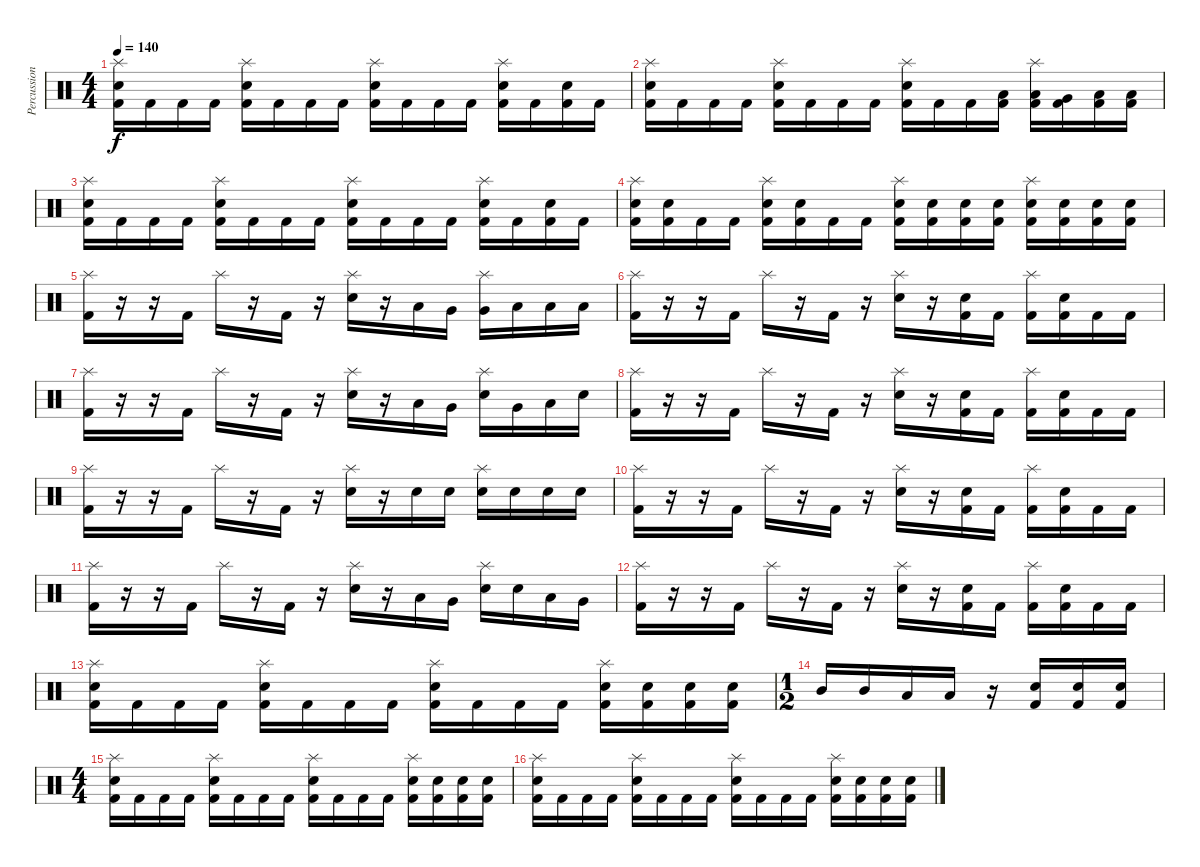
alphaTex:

\track ("Percussion" "Percussion") {instrument percussion}
\staff {score}
\articulation defaults
\ts (4 4)
\tempo 140
\clef neutral
\ks c
("Splash (hit)" "Electric Snare (hit)" "Kick (hit) 2").16{dy f} "Kick (hit) 2".16 "Kick (hit) 2".16 "Kick (hit) 2".16 ("Splash (hit)" "Electric Snare (hit)" "Kick (hit) 2").16 "Kick (hit) 2".16 "Kick (hit) 2".16 "Kick (hit) 2".16 ("Splash (hit)" "Electric Snare (hit)" "Kick (hit) 2").16 "Kick (hit) 2".16 "Kick (hit) 2".16 "Kick (hit) 2".16 ("Splash (hit)" "Electric Snare (hit)" "Kick (hit) 2").16 "Kick (hit) 2".16 ("Electric Snare (hit)" "Kick (hit) 2").16 "Kick (hit) 2".16 |
("Splash (hit)" "Electric Snare (hit)" "Kick (hit) 2").16 "Kick (hit) 2".16 "Kick (hit) 2".16 "Kick (hit) 2".16 ("Splash (hit)" "Electric Snare (hit)" "Kick (hit) 2").16 "Kick (hit) 2".16 "Kick (hit) 2".16 "Kick (hit) 2".16 ("Splash (hit)" "Electric Snare (hit)" "Kick (hit) 2").16 "Kick (hit) 2".16 "Kick (hit) 2".16 ("Low Tom (hit)" "Kick (hit) 2").16 ("Splash (hit)" "Low Tom (hit)" "Kick (hit) 2").16 ("Very Low Tom (hit)" "Kick (hit) 2").16 ("Low Floor Tom (hit)" "Kick (hit) 2").16 ("Low Floor Tom (hit)" "Kick (hit) 2").16 |
("Splash (hit)" "Electric Snare (hit)" "Kick (hit) 2").16 "Kick (hit) 2".16 "Kick (hit) 2".16 "Kick (hit) 2".16 ("Splash (hit)" "Electric Snare (hit)" "Kick (hit) 2").16 "Kick (hit) 2".16 "Kick (hit) 2".16 "Kick (hit) 2".16 ("Splash (hit)" "Electric Snare (hit)" "Kick (hit) 2").16 "Kick (hit) 2".16 "Kick (hit) 2".16 "Kick (hit) 2".16 ("Splash (hit)" "Electric Snare (hit)" "Kick (hit) 2").16 "Kick (hit) 2".16 ("Electric Snare (hit)" "Kick (hit) 2").16 "Kick (hit) 2".16 |
("Splash (hit)" "Electric Snare (hit)" "Kick (hit) 2").16 ("Electric Snare (hit)" "Kick (hit) 2").16 "Kick (hit) 2".16 "Kick (hit) 2".16 ("Splash (hit)" "Electric Snare (hit)" "Kick (hit) 2").16 ("Electric Snare (hit)" "Kick (hit) 2").16 "Kick (hit) 2".16 "Kick (hit) 2".16 ("Splash (hit)" "Electric Snare (hit)" "Kick (hit) 2").16 ("Electric Snare (hit)" "Kick (hit) 2").16 ("Electric Snare (hit)" "Kick (hit) 2").16 ("Electric Snare (hit)" "Kick (hit) 2").16 ("Splash (hit)" "Electric Snare (hit)" "Kick (hit) 2").16 ("Electric Snare (hit)" "Kick (hit) 2").16 ("Electric Snare (hit)" "Kick (hit) 2").16 ("Electric Snare (hit)" "Kick (hit) 2").16 |
("Splash (hit)" "Kick (hit) 2").16 r.16 r.16 "Kick (hit) 2".16 "Splash (hit)".16 r.16 "Kick (hit) 2".16 r.16 ("Splash (hit)" "Electric Snare (hit)").16 r.16 "Low Tom (hit)".16 "Very Low Tom (hit)".16 ("Splash (hit)" "Very Low Tom (hit)").16 "Low Tom (hit)".16 "Low Floor Tom (hit)".16 "Low Floor Tom (hit)".16 |
("Splash (hit)" "Kick (hit) 2").16 r.16 r.16 "Kick (hit) 2".16 "Splash (hit)".16 r.16 "Kick (hit) 2".16 r.16 ("Splash (hit)" "Electric Snare (hit)").16 r.16 ("Electric Snare (hit)" "Kick (hit) 2").16 "Kick (hit) 2".16 ("Splash (hit)" "Kick (hit) 2").16 ("Electric Snare (hit)" "Kick (hit) 2").16 "Kick (hit) 2".16 "Kick (hit) 2".16 |
("Splash (hit)" "Kick (hit) 2").16 r.16 r.16 "Kick (hit) 2".16 "Splash (hit)".16 r.16 "Kick (hit) 2".16 r.16 ("Splash (hit)" "Electric Snare (hit)").16 r.16 "Low Tom (hit)".16 "Very Low Tom (hit)".16 ("Splash (hit)" "Electric Snare (hit)").16 "Very Low Tom (hit)".16 "Low Floor Tom (hit)".16 "Electric Snare (hit)".16 |
("Splash (hit)" "Kick (hit) 2").16 r.16 r.16 "Kick (hit) 2".16 "Splash (hit)".16 r.16 "Kick (hit) 2".16 r.16 ("Splash (hit)" "Electric Snare (hit)").16 r.16 ("Electric Snare (hit)" "Kick (hit) 2").16 "Kick (hit) 2".16 ("Splash (hit)" "Kick (hit) 2").16 ("Electric Snare (hit)" "Kick (hit) 2").16 "Kick (hit) 2".16 "Kick (hit) 2".16 |
("Splash (hit)" "Kick (hit) 2").16 r.16 r.16 "Kick (hit) 2".16 "Splash (hit)".16 r.16 "Kick (hit) 2".16 r.16 ("Splash (hit)" "Electric Snare (hit)").16 r.16 "Electric Snare (hit)".16 "Electric Snare (hit)".16 ("Splash (hit)" "Electric Snare (hit)").16 "Electric Snare (hit)".16 "Electric Snare (hit)".16 "Electric Snare (hit)".16 |
("Splash (hit)" "Kick (hit) 2").16 r.16 r.16 "Kick (hit) 2".16 "Splash (hit)".16 r.16 "Kick (hit) 2".16 r.16 ("Splash (hit)" "Electric Snare (hit)").16 r.16 ("Electric Snare (hit)" "Kick (hit) 2").16 "Kick (hit) 2".16 ("Splash (hit)" "Kick (hit) 2").16 ("Electric Snare (hit)" "Kick (hit) 2").16 "Kick (hit) 2".16 "Kick (hit) 2".16 |
("Splash (hit)" "Kick (hit) 2").16 r.16 r.16 "Kick (hit) 2".16 "Splash (hit)".16 r.16 "Kick (hit) 2".16 r.16 ("Splash (hit)" "Electric Snare (hit)").16 r.16 "Low Tom (hit)".16 "Very Low Tom (hit)".16 ("Splash (hit)" "Electric Snare (hit)").16 "Electric Snare (hit)".16 "Low Floor Tom (hit)".16 "Very Low Tom (hit)".16 |
("Splash (hit)" "Kick (hit) 2").16 r.16 r.16 "Kick (hit) 2".16 "Splash (hit)".16 r.16 "Kick (hit) 2".16 r.16 ("Splash (hit)" "Electric Snare (hit)").16 r.16 ("Electric Snare (hit)" "Kick (hit) 2").16 "Kick (hit) 2".16 ("Splash (hit)" "Kick (hit) 2").16 ("Electric Snare (hit)" "Kick (hit) 2").16 "Kick (hit) 2".16 "Kick (hit) 2".16 |
("Splash (hit)" "Electric Snare (hit)" "Kick (hit) 2").16 "Kick (hit) 2".16 "Kick (hit) 2".16 "Kick (hit) 2".16 ("Splash (hit)" "Electric Snare (hit)" "Kick (hit) 2").16 "Kick (hit) 2".16 "Kick (hit) 2".16 "Kick (hit) 2".16 ("Splash (hit)" "Electric Snare (hit)" "Kick (hit) 2").16 "Kick (hit) 2".16 "Kick (hit) 2".16 "Kick (hit) 2".16 ("Splash (hit)" "Electric Snare (hit)" "Kick (hit) 2").16 ("Electric Snare (hit)" "Kick (hit) 2").16 ("Electric Snare (hit)" "Kick (hit) 2").16 ("Electric Snare (hit)" "Kick (hit) 2").16 |
\ts (1 2)
"Mid Tom (hit)".16 "Mid Tom (hit)".16 "Low Tom (hit)".16 "Low Tom (hit)".16 r.16 ("Electric Snare (hit)" "Kick (hit) 2").16 ("Electric Snare (hit)" "Kick (hit) 2").16 ("Electric Snare (hit)" "Kick (hit) 2").16 |
\ts (4 4)
("Splash (hit)" "Electric Snare (hit)" "Kick (hit) 2").16 "Kick (hit) 2".16 "Kick (hit) 2".16 "Kick (hit) 2".16 ("Splash (hit)" "Electric Snare (hit)" "Kick (hit) 2").16 "Kick (hit) 2".16 "Kick (hit) 2".16 "Kick (hit) 2".16 ("Splash (hit)" "Electric Snare (hit)" "Kick (hit) 2").16 "Kick (hit) 2".16 "Kick (hit) 2".16 "Kick (hit) 2".16 ("Splash (hit)" "Electric Snare (hit)" "Kick (hit) 2").16 ("Electric Snare (hit)" "Kick (hit) 2").16 ("Electric Snare (hit)" "Kick (hit) 2").16 ("Electric Snare (hit)" "Kick (hit) 2").16 |
("Splash (hit)" "Electric Snare (hit)" "Kick (hit) 2").16 "Kick (hit) 2".16 "Kick (hit) 2".16 "Kick (hit) 2".16 ("Splash (hit)" "Electric Snare (hit)" "Kick (hit) 2").16 "Kick (hit) 2".16 "Kick (hit) 2".16 "Kick (hit) 2".16 ("Splash (hit)" "Electric Snare (hit)" "Kick (hit) 2").16 "Kick (hit) 2".16 "Kick (hit) 2".16 "Kick (hit) 2".16 ("Splash (hit)" "Electric Snare (hit)" "Kick (hit) 2").16 ("Electric Snare (hit)" "Kick (hit) 2").16 ("Electric Snare (hit)" "Kick (hit) 2").16 ("Electric Snare (hit)" "Kick (hit) 2").16
